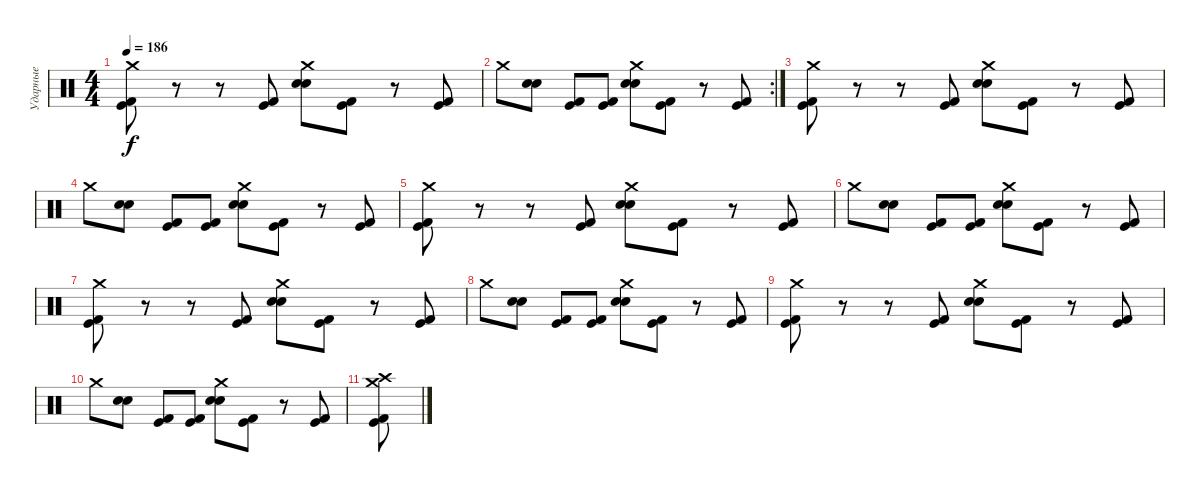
\track ("Ударные" "Ударные") {instrument percussion}
\staff {score}
\articulation defaults
\ts (4 4)
\tempo 186
\clef neutral
\ks c
("Kick (hit) 2" "Kick (hit)" "Crash medium (hit)").8{dy f} r.8 r.8 ("Kick (hit) 2" "Kick (hit)").8 ("Electric Snare (hit)" "Snare (hit) 2" "Crash medium (hit)").8 ("Kick (hit) 2" "Kick (hit)").8 r.8 ("Kick (hit) 2" "Kick (hit)").8 |
\rc 2 "Crash medium (hit)".8
("Electric Snare (hit)" "Snare (hit) 2").8 ("Kick (hit) 2" "Kick (hit)").8 ("Kick (hit) 2" "Kick (hit)").8 ("Electric Snare (hit)" "Snare (hit) 2" "Crash medium (hit)").8 ("Kick (hit) 2" "Kick (hit)").8 r.8 ("Kick (hit) 2" "Kick (hit)").8 |
("Kick (hit) 2" "Kick (hit)" "Crash medium (hit)").8 r.8 r.8 ("Kick (hit) 2" "Kick (hit)").8 ("Electric Snare (hit)" "Snare (hit) 2" "Crash medium (hit)").8 ("Kick (hit) 2" "Kick (hit)").8 r.8 ("Kick (hit) 2" "Kick (hit)").8 |
"Crash medium (hit)".8 ("Electric Snare (hit)" "Snare (hit) 2").8 ("Kick (hit) 2" "Kick (hit)").8 ("Kick (hit) 2" "Kick (hit)").8 ("Electric Snare (hit)" "Snare (hit) 2" "Crash medium (hit)").8 ("Kick (hit) 2" "Kick (hit)").8 r.8 ("Kick (hit) 2" "Kick (hit)").8 |
("Kick (hit) 2" "Kick (hit)" "Crash medium (hit)").8 r.8 r.8 ("Kick (hit) 2" "Kick (hit)").8 ("Electric Snare (hit)" "Snare (hit) 2" "Crash medium (hit)").8 ("Kick (hit) 2" "Kick (hit)").8 r.8 ("Kick (hit) 2" "Kick (hit)").8 |
"Crash medium (hit)".8 ("Electric Snare (hit)" "Snare (hit) 2").8 ("Kick (hit) 2" "Kick (hit)").8 ("Kick (hit) 2" "Kick (hit)").8 ("Electric Snare (hit)" "Snare (hit) 2" "Crash medium (hit)").8 ("Kick (hit) 2" "Kick (hit)").8 r.8 ("Kick (hit) 2" "Kick (hit)").8 |
("Kick (hit) 2" "Kick (hit)" "Crash medium (hit)").8 r.8 r.8 ("Kick (hit) 2" "Kick (hit)").8 ("Electric Snare (hit)" "Snare (hit) 2" "Crash medium (hit)").8 ("Kick (hit) 2" "Kick (hit)").8 r.8 ("Kick (hit) 2" "Kick (hit)").8 |
"Crash medium (hit)".8 ("Electric Snare (hit)" "Snare (hit) 2").8 ("Kick (hit) 2" "Kick (hit)").8 ("Kick (hit) 2" "Kick (hit)").8 ("Electric Snare (hit)" "Snare (hit) 2" "Crash medium (hit)").8 ("Kick (hit) 2" "Kick (hit)").8 r.8 ("Kick (hit) 2" "Kick (hit)").8 |
("Kick (hit) 2" "Kick (hit)" "Crash medium (hit)").8 r.8 r.8 ("Kick (hit) 2" "Kick (hit)").8 ("Electric Snare (hit)" "Snare (hit) 2" "Crash medium (hit)").8 ("Kick (hit) 2" "Kick (hit)").8 r.8 ("Kick (hit) 2" "Kick (hit)").8 |
"Crash medium (hit)".8 ("Electric Snare (hit)" "Snare (hit) 2").8 ("Kick (hit) 2" "Kick (hit)").8 ("Kick (hit) 2" "Kick (hit)").8 ("Electric Snare (hit)" "Snare (hit) 2" "Crash medium (hit)").8 ("Kick (hit) 2" "Kick (hit)").8 r.8 ("Kick (hit) 2" "Kick (hit)").8 |
("Kick (hit) 2" "Kick (hit)" "Crash medium (hit)" "Crash high (hit)").8
